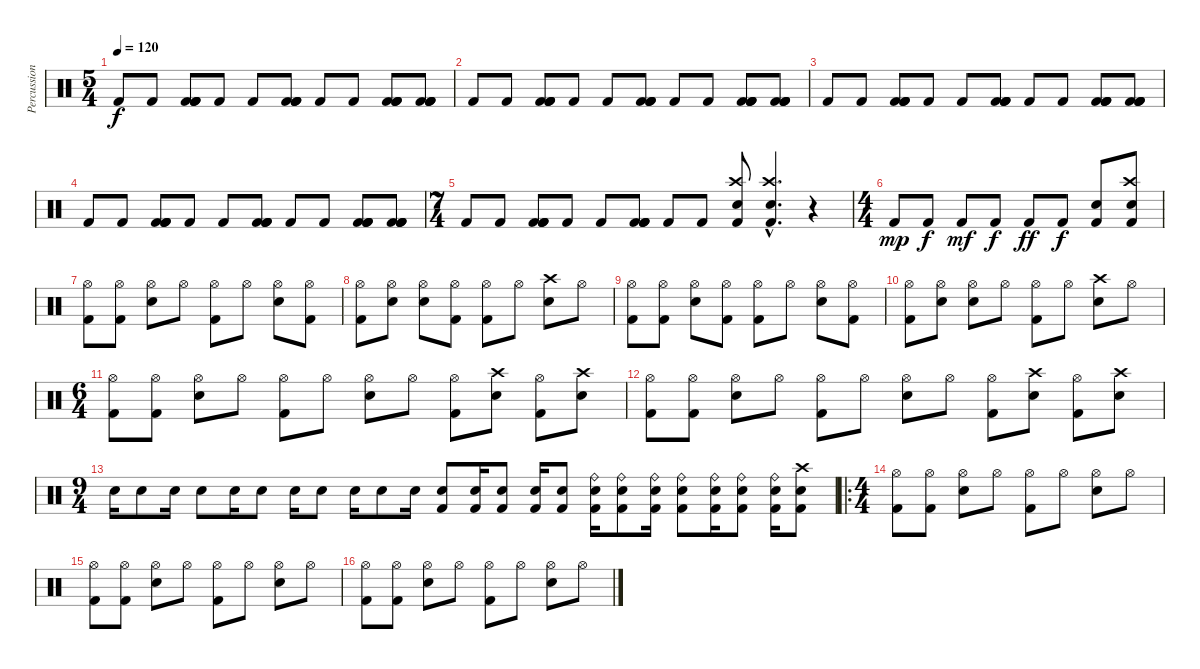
\track ("Percussion" "Percussion") {instrument percussion}
\staff {score}
\articulation defaults
\ts (5 4)
\tempo 120
\clef neutral
\ks c "Kick (hit) 2".8{dy f} "Kick (hit) 2".8
("Kick (hit) 2" "Kick (hit) 2" "Kick (hit) 2" "Kick (hit) 2").8 "Kick (hit) 2".8 "Kick (hit) 2".8 ("Kick (hit) 2" "Kick (hit) 2" "Kick (hit) 2" "Kick (hit) 2").8 "Kick (hit) 2".8 "Kick (hit) 2".8 ("Kick (hit) 2" "Kick (hit) 2" "Kick (hit) 2" "Kick (hit) 2").8 ("Kick (hit) 2" "Kick (hit) 2" "Kick (hit) 2" "Kick (hit) 2").8 |
"Kick (hit) 2".8 "Kick (hit) 2".8 ("Kick (hit) 2" "Kick (hit) 2" "Kick (hit) 2" "Kick (hit) 2").8 "Kick (hit) 2".8 "Kick (hit) 2".8 ("Kick (hit) 2" "Kick (hit) 2" "Kick (hit) 2" "Kick (hit) 2").8 "Kick (hit) 2".8 "Kick (hit) 2".8 ("Kick (hit) 2" "Kick (hit) 2" "Kick (hit) 2" "Kick (hit) 2").8 ("Kick (hit) 2" "Kick (hit) 2" "Kick (hit) 2" "Kick (hit) 2").8 |
"Kick (hit) 2".8 "Kick (hit) 2".8 ("Kick (hit) 2" "Kick (hit) 2" "Kick (hit) 2" "Kick (hit) 2").8 "Kick (hit) 2".8 "Kick (hit) 2".8 ("Kick (hit) 2" "Kick (hit) 2" "Kick (hit) 2" "Kick (hit) 2").8 "Kick (hit) 2".8 "Kick (hit) 2".8 ("Kick (hit) 2" "Kick (hit) 2" "Kick (hit) 2" "Kick (hit) 2").8 ("Kick (hit) 2" "Kick (hit) 2" "Kick (hit) 2" "Kick (hit) 2").8 |
"Kick (hit) 2".8 "Kick (hit) 2".8 ("Kick (hit) 2" "Kick (hit) 2" "Kick (hit) 2" "Kick (hit) 2").8 "Kick (hit) 2".8 "Kick (hit) 2".8 ("Kick (hit) 2" "Kick (hit) 2" "Kick (hit) 2" "Kick (hit) 2").8 "Kick (hit) 2".8 "Kick (hit) 2".8 ("Kick (hit) 2" "Kick (hit) 2" "Kick (hit) 2" "Kick (hit) 2").8 ("Kick (hit) 2" "Kick (hit) 2" "Kick (hit) 2" "Kick (hit) 2").8 |
\ts (7 4)
"Kick (hit) 2".8 "Kick (hit) 2".8 ("Kick (hit) 2" "Kick (hit) 2" "Kick (hit) 2" "Kick (hit) 2").8 "Kick (hit) 2".8 "Kick (hit) 2".8 ("Kick (hit) 2" "Kick (hit) 2" "Kick (hit) 2" "Kick (hit) 2").8 "Kick (hit) 2".8 "Kick (hit) 2".8 ("Crash high (hit)" "Kick (hit) 2" "Snare (hit) 2").8 ("Crash high (hit)"{hac} "Kick (hit) 2"{hac} "Snare (hit) 2"{hac}).4{d} r.4 |
\ts (4 4)
"Kick (hit) 2".8{dy mp} "Kick (hit) 2".8{dy f} "Kick (hit) 2".8{dy mf} "Kick (hit) 2".8{dy f} "Kick (hit) 2".8{dy ff} "Kick (hit) 2".8{dy f} ("Snare (hit) 2" "Kick (hit) 2").8 ("Crash high (hit)" "Snare (hit) 2" "Kick (hit) 2").8 |
("Hi-Hat (open)" "Kick (hit) 2").8 ("Hi-Hat (open)" "Kick (hit) 2").8 ("Hi-Hat (open)" "Snare (hit) 2").8 "Hi-Hat (open)".8 ("Hi-Hat (open)" "Kick (hit) 2").8 "Hi-Hat (open)".8 ("Hi-Hat (open)" "Snare (hit) 2").8 ("Hi-Hat (open)" "Kick (hit) 2").8 |
("Hi-Hat (open)" "Kick (hit) 2").8 ("Hi-Hat (open)" "Snare (hit) 2").8 ("Hi-Hat (open)" "Snare (hit) 2").8 ("Hi-Hat (open)" "Kick (hit) 2").8 ("Hi-Hat (open)" "Kick (hit) 2").8 "Hi-Hat (open)".8 ("Crash high (hit)" "Snare (hit) 2").8 "Hi-Hat (open)".8 |
("Hi-Hat (open)" "Kick (hit) 2").8 ("Hi-Hat (open)" "Kick (hit) 2").8 ("Hi-Hat (open)" "Snare (hit) 2").8 ("Hi-Hat (open)" "Kick (hit) 2").8 ("Hi-Hat (open)" "Kick (hit) 2").8 "Hi-Hat (open)".8 ("Hi-Hat (open)" "Snare (hit) 2").8 ("Hi-Hat (open)" "Kick (hit) 2").8 |
("Hi-Hat (open)" "Kick (hit) 2").8 ("Hi-Hat (open)" "Snare (hit) 2").8 ("Hi-Hat (open)" "Snare (hit) 2").8 "Hi-Hat (open)".8 ("Hi-Hat (open)" "Kick (hit) 2").8 "Hi-Hat (open)".8 ("Crash high (hit)" "Snare (hit) 2").8 "Hi-Hat (open)".8 |
\ts (6 4)
("Hi-Hat (open)" "Kick (hit) 2").8 ("Hi-Hat (open)" "Kick (hit) 2").8 ("Hi-Hat (open)" "Snare (hit) 2").8 "Hi-Hat (open)".8 ("Hi-Hat (open)" "Kick (hit) 2").8 "Hi-Hat (open)".8 ("Hi-Hat (open)" "Snare (hit) 2").8 "Hi-Hat (open)".8 ("Hi-Hat (open)" "Kick (hit) 2").8 ("Crash high (hit)" "Snare (hit) 2").8 ("Hi-Hat (open)" "Kick (hit) 2").8 ("Crash high (hit)" "Snare (hit) 2").8 |
("Hi-Hat (open)" "Kick (hit) 2").8 ("Hi-Hat (open)" "Kick (hit) 2").8 ("Hi-Hat (open)" "Snare (hit) 2").8 "Hi-Hat (open)".8 ("Hi-Hat (open)" "Kick (hit) 2").8 "Hi-Hat (open)".8 ("Hi-Hat (open)" "Snare (hit) 2").8 "Hi-Hat (open)".8 ("Hi-Hat (open)" "Kick (hit) 2").8 ("Crash high (hit)" "Snare (hit) 2").8 ("Hi-Hat (open)" "Kick (hit) 2").8 ("Crash high (hit)" "Snare (hit) 2").8 |
\ts (9 4)
"Electric Snare (hit)".16 "Snare (hit) 2".8 "Electric Snare (hit)".16 "Snare (hit) 2".8 "Electric Snare (hit)".16 "Snare (hit) 2".8 "Electric Snare (hit)".16 "Snare (hit) 2".8 "Electric Snare (hit)".16 "Snare (hit) 2".8 "Electric Snare (hit)".16 ("Snare (hit) 2" "Kick (hit) 2").8 ("Electric Snare (hit)" "Kick (hit) 2").16 ("Snare (hit) 2" "Kick (hit) 2").8 ("Electric Snare (hit)" "Kick (hit) 2").16 ("Snare (hit) 2" "Kick (hit) 2").8 ("Ride (bell)" "Electric Snare (hit)" "Kick (hit) 2").16 ("Ride (bell)" "Snare (hit) 2" "Kick (hit) 2").8 ("Ride (bell)" "Electric Snare (hit)" "Kick (hit) 2").16 ("Ride (bell)" "Snare (hit) 2" "Kick (hit) 2").8 ("Ride (bell)" "Electric Snare (hit)" "Kick (hit) 2").16 ("Ride (bell)" "Snare (hit) 2" "Kick (hit) 2").8 ("Ride (bell)" "Electric Snare (hit)" "Kick (hit) 2").16 ("Crash high (hit)" "Snare (hit) 2" "Kick (hit) 2").8 |
\ro
\ts (4 4)
("Hi-Hat (open)" "Kick (hit) 2").8 ("Hi-Hat (open)" "Kick (hit) 2").8 ("Hi-Hat (open)" "Snare (hit) 2").8 "Hi-Hat (open)".8 ("Hi-Hat (open)" "Kick (hit) 2").8 "Hi-Hat (open)".8 ("Hi-Hat (open)" "Snare (hit) 2").8 "Hi-Hat (open)".8 |
("Hi-Hat (open)" "Kick (hit) 2").8 ("Hi-Hat (open)" "Kick (hit) 2").8 ("Hi-Hat (open)" "Snare (hit) 2").8 "Hi-Hat (open)".8 ("Hi-Hat (open)" "Kick (hit) 2").8 "Hi-Hat (open)".8 ("Hi-Hat (open)" "Snare (hit) 2").8 "Hi-Hat (open)".8 |
("Hi-Hat (open)" "Kick (hit) 2").8 ("Hi-Hat (open)" "Kick (hit) 2").8 ("Hi-Hat (open)" "Snare (hit) 2").8 "Hi-Hat (open)".8 ("Hi-Hat (open)" "Kick (hit) 2").8 "Hi-Hat (open)".8 ("Hi-Hat (open)" "Snare (hit) 2").8 "Hi-Hat (open)".8
